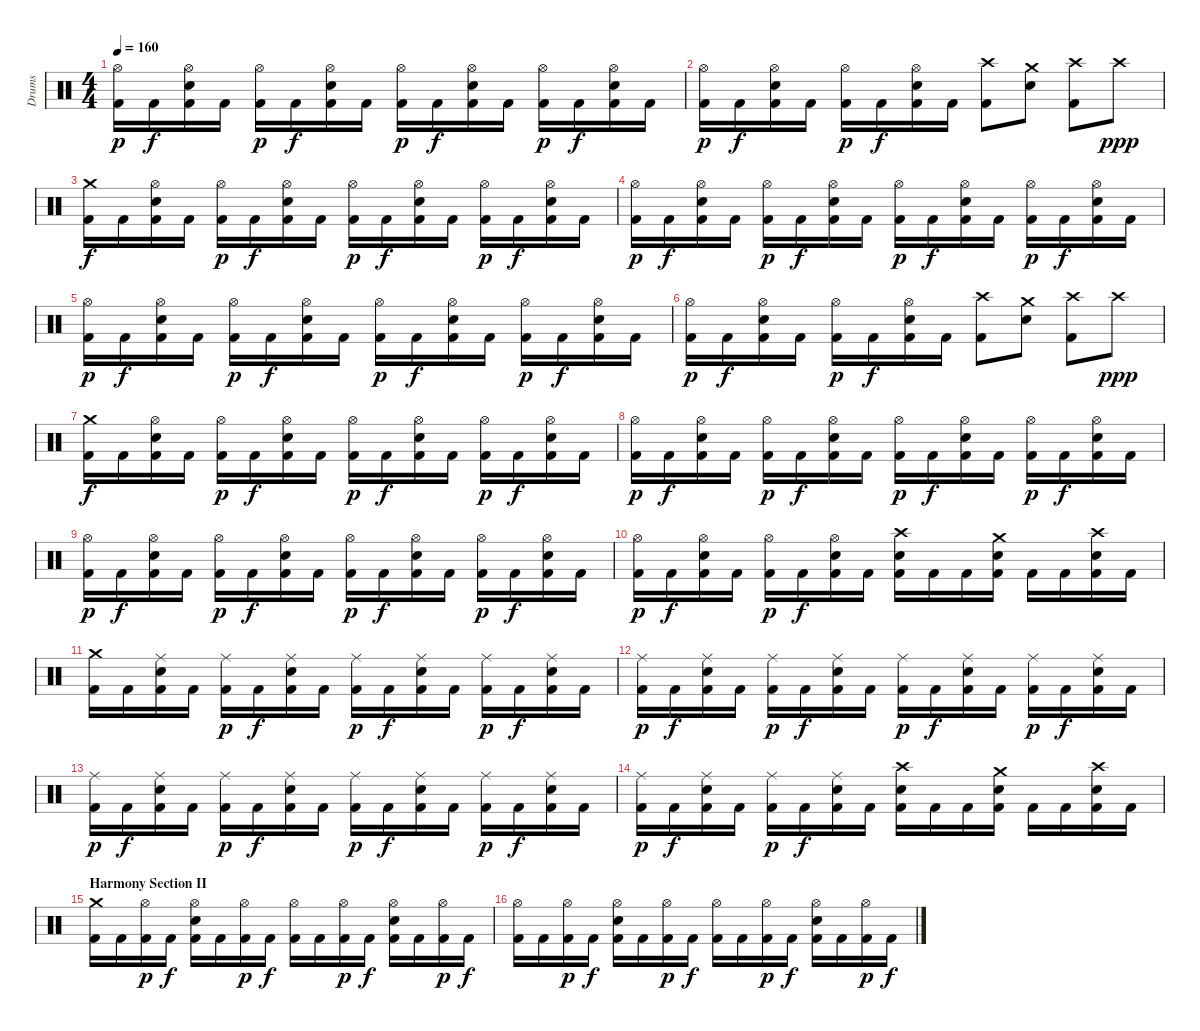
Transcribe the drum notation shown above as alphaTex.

\track ("Drums" "Drums") {instrument percussion}
\staff {score}
\articulation defaults
\ts (4 4)
\tempo 160
\clef neutral
\ks c
("Hi-Hat (open)" "Kick (hit) 2").16{dy p} "Kick (hit) 2".16{dy f} ("Hi-Hat (open)" "Snare (hit) 2" "Kick (hit) 2").16 "Kick (hit) 2".16 ("Hi-Hat (open)" "Kick (hit) 2").16{dy p} "Kick (hit) 2".16{dy f} ("Hi-Hat (open)" "Snare (hit) 2" "Kick (hit) 2").16 "Kick (hit) 2".16 ("Hi-Hat (open)" "Kick (hit) 2").16{dy p} "Kick (hit) 2".16{dy f} ("Hi-Hat (open)" "Snare (hit) 2" "Kick (hit) 2").16 "Kick (hit) 2".16 ("Hi-Hat (open)" "Kick (hit) 2").16{dy p} "Kick (hit) 2".16{dy f} ("Hi-Hat (open)" "Snare (hit) 2" "Kick (hit) 2").16 "Kick (hit) 2".16 |
("Hi-Hat (open)" "Kick (hit) 2").16{dy p} "Kick (hit) 2".16{dy f} ("Hi-Hat (open)" "Snare (hit) 2" "Kick (hit) 2").16 "Kick (hit) 2".16 ("Hi-Hat (open)" "Kick (hit) 2").16{dy p} "Kick (hit) 2".16{dy f} ("Hi-Hat (open)" "Snare (hit) 2" "Kick (hit) 2").16 "Kick (hit) 2".16 ("Crash high (hit)" "Kick (hit) 2").8 ("Crash medium (hit)" "Snare (hit) 2").8 ("Crash high (hit)" "Kick (hit) 2").8 "Crash high (hit)".8{dy ppp} |
("Crash medium (hit)" "Kick (hit) 2").16{dy f} "Kick (hit) 2".16 ("Hi-Hat (open)" "Snare (hit) 2" "Kick (hit) 2").16 "Kick (hit) 2".16 ("Hi-Hat (open)" "Kick (hit) 2").16{dy p} "Kick (hit) 2".16{dy f} ("Hi-Hat (open)" "Snare (hit) 2" "Kick (hit) 2").16 "Kick (hit) 2".16 ("Hi-Hat (open)" "Kick (hit) 2").16{dy p} "Kick (hit) 2".16{dy f} ("Hi-Hat (open)" "Snare (hit) 2" "Kick (hit) 2").16 "Kick (hit) 2".16 ("Hi-Hat (open)" "Kick (hit) 2").16{dy p} "Kick (hit) 2".16{dy f} ("Hi-Hat (open)" "Snare (hit) 2" "Kick (hit) 2").16 "Kick (hit) 2".16 |
("Hi-Hat (open)" "Kick (hit) 2").16{dy p} "Kick (hit) 2".16{dy f} ("Hi-Hat (open)" "Snare (hit) 2" "Kick (hit) 2").16 "Kick (hit) 2".16 ("Hi-Hat (open)" "Kick (hit) 2").16{dy p} "Kick (hit) 2".16{dy f} ("Hi-Hat (open)" "Snare (hit) 2" "Kick (hit) 2").16 "Kick (hit) 2".16 ("Hi-Hat (open)" "Kick (hit) 2").16{dy p} "Kick (hit) 2".16{dy f} ("Hi-Hat (open)" "Snare (hit) 2" "Kick (hit) 2").16 "Kick (hit) 2".16 ("Hi-Hat (open)" "Kick (hit) 2").16{dy p} "Kick (hit) 2".16{dy f} ("Hi-Hat (open)" "Snare (hit) 2" "Kick (hit) 2").16 "Kick (hit) 2".16 |
("Hi-Hat (open)" "Kick (hit) 2").16{dy p} "Kick (hit) 2".16{dy f} ("Hi-Hat (open)" "Snare (hit) 2" "Kick (hit) 2").16 "Kick (hit) 2".16 ("Hi-Hat (open)" "Kick (hit) 2").16{dy p} "Kick (hit) 2".16{dy f} ("Hi-Hat (open)" "Snare (hit) 2" "Kick (hit) 2").16 "Kick (hit) 2".16 ("Hi-Hat (open)" "Kick (hit) 2").16{dy p} "Kick (hit) 2".16{dy f} ("Hi-Hat (open)" "Snare (hit) 2" "Kick (hit) 2").16 "Kick (hit) 2".16 ("Hi-Hat (open)" "Kick (hit) 2").16{dy p} "Kick (hit) 2".16{dy f} ("Hi-Hat (open)" "Snare (hit) 2" "Kick (hit) 2").16 "Kick (hit) 2".16 |
("Hi-Hat (open)" "Kick (hit) 2").16{dy p} "Kick (hit) 2".16{dy f} ("Hi-Hat (open)" "Snare (hit) 2" "Kick (hit) 2").16 "Kick (hit) 2".16 ("Hi-Hat (open)" "Kick (hit) 2").16{dy p} "Kick (hit) 2".16{dy f} ("Hi-Hat (open)" "Snare (hit) 2" "Kick (hit) 2").16 "Kick (hit) 2".16 ("Crash high (hit)" "Kick (hit) 2").8 ("Crash medium (hit)" "Snare (hit) 2").8 ("Crash high (hit)" "Kick (hit) 2").8 "Crash high (hit)".8{dy ppp} |
\section ("" "")
("Crash medium (hit)" "Kick (hit) 2").16{dy f} "Kick (hit) 2".16 ("Hi-Hat (open)" "Snare (hit) 2" "Kick (hit) 2").16 "Kick (hit) 2".16 ("Hi-Hat (open)" "Kick (hit) 2").16{dy p} "Kick (hit) 2".16{dy f} ("Hi-Hat (open)" "Snare (hit) 2" "Kick (hit) 2").16 "Kick (hit) 2".16 ("Hi-Hat (open)" "Kick (hit) 2").16{dy p} "Kick (hit) 2".16{dy f} ("Hi-Hat (open)" "Snare (hit) 2" "Kick (hit) 2").16 "Kick (hit) 2".16 ("Hi-Hat (open)" "Kick (hit) 2").16{dy p} "Kick (hit) 2".16{dy f} ("Hi-Hat (open)" "Snare (hit) 2" "Kick (hit) 2").16 "Kick (hit) 2".16 |
("Hi-Hat (open)" "Kick (hit) 2").16{dy p} "Kick (hit) 2".16{dy f} ("Hi-Hat (open)" "Snare (hit) 2" "Kick (hit) 2").16 "Kick (hit) 2".16 ("Hi-Hat (open)" "Kick (hit) 2").16{dy p} "Kick (hit) 2".16{dy f} ("Hi-Hat (open)" "Snare (hit) 2" "Kick (hit) 2").16 "Kick (hit) 2".16 ("Hi-Hat (open)" "Kick (hit) 2").16{dy p} "Kick (hit) 2".16{dy f} ("Hi-Hat (open)" "Snare (hit) 2" "Kick (hit) 2").16 "Kick (hit) 2".16 ("Hi-Hat (open)" "Kick (hit) 2").16{dy p} "Kick (hit) 2".16{dy f} ("Hi-Hat (open)" "Snare (hit) 2" "Kick (hit) 2").16 "Kick (hit) 2".16 |
("Hi-Hat (open)" "Kick (hit) 2").16{dy p} "Kick (hit) 2".16{dy f} ("Hi-Hat (open)" "Snare (hit) 2" "Kick (hit) 2").16 "Kick (hit) 2".16 ("Hi-Hat (open)" "Kick (hit) 2").16{dy p} "Kick (hit) 2".16{dy f} ("Hi-Hat (open)" "Snare (hit) 2" "Kick (hit) 2").16 "Kick (hit) 2".16 ("Hi-Hat (open)" "Kick (hit) 2").16{dy p} "Kick (hit) 2".16{dy f} ("Hi-Hat (open)" "Snare (hit) 2" "Kick (hit) 2").16 "Kick (hit) 2".16 ("Hi-Hat (open)" "Kick (hit) 2").16{dy p} "Kick (hit) 2".16{dy f} ("Hi-Hat (open)" "Snare (hit) 2" "Kick (hit) 2").16 "Kick (hit) 2".16 |
("Hi-Hat (open)" "Kick (hit) 2").16{dy p} "Kick (hit) 2".16{dy f} ("Hi-Hat (open)" "Snare (hit) 2" "Kick (hit) 2").16 "Kick (hit) 2".16 ("Hi-Hat (open)" "Kick (hit) 2").16{dy p} "Kick (hit) 2".16{dy f} ("Hi-Hat (open)" "Snare (hit) 2" "Kick (hit) 2").16 "Kick (hit) 2".16 ("Crash high (hit)" "Snare (hit) 2" "Kick (hit) 2").16 "Kick (hit) 2".16 "Kick (hit) 2".16 ("Crash medium (hit)" "Snare (hit) 2" "Kick (hit) 2").16 "Kick (hit) 2".16 "Kick (hit) 2".16 ("Crash high (hit)" "Snare (hit) 2" "Kick (hit) 2").16 "Kick (hit) 2".16 |
("Crash medium (hit)" "Kick (hit) 2").16 "Kick (hit) 2".16 ("Ride (middle)" "Snare (hit) 2" "Kick (hit) 2").16 "Kick (hit) 2".16 ("Ride (middle)" "Kick (hit) 2").16{dy p} "Kick (hit) 2".16{dy f} ("Ride (middle)" "Snare (hit) 2" "Kick (hit) 2").16 "Kick (hit) 2".16 ("Ride (middle)" "Kick (hit) 2").16{dy p} "Kick (hit) 2".16{dy f} ("Ride (middle)" "Snare (hit) 2" "Kick (hit) 2").16 "Kick (hit) 2".16 ("Ride (middle)" "Kick (hit) 2").16{dy p} "Kick (hit) 2".16{dy f} ("Ride (middle)" "Snare (hit) 2" "Kick (hit) 2").16 "Kick (hit) 2".16 |
("Ride (middle)" "Kick (hit) 2").16{dy p} "Kick (hit) 2".16{dy f} ("Ride (middle)" "Snare (hit) 2" "Kick (hit) 2").16 "Kick (hit) 2".16 ("Ride (middle)" "Kick (hit) 2").16{dy p} "Kick (hit) 2".16{dy f} ("Ride (middle)" "Snare (hit) 2" "Kick (hit) 2").16 "Kick (hit) 2".16 ("Ride (middle)" "Kick (hit) 2").16{dy p} "Kick (hit) 2".16{dy f} ("Ride (middle)" "Snare (hit) 2" "Kick (hit) 2").16 "Kick (hit) 2".16 ("Ride (middle)" "Kick (hit) 2").16{dy p} "Kick (hit) 2".16{dy f} ("Ride (middle)" "Snare (hit) 2" "Kick (hit) 2").16 "Kick (hit) 2".16 |
("Ride (middle)" "Kick (hit) 2").16{dy p} "Kick (hit) 2".16{dy f} ("Ride (middle)" "Snare (hit) 2" "Kick (hit) 2").16 "Kick (hit) 2".16 ("Ride (middle)" "Kick (hit) 2").16{dy p} "Kick (hit) 2".16{dy f} ("Ride (middle)" "Snare (hit) 2" "Kick (hit) 2").16 "Kick (hit) 2".16 ("Ride (middle)" "Kick (hit) 2").16{dy p} "Kick (hit) 2".16{dy f} ("Ride (middle)" "Snare (hit) 2" "Kick (hit) 2").16 "Kick (hit) 2".16 ("Ride (middle)" "Kick (hit) 2").16{dy p} "Kick (hit) 2".16{dy f} ("Ride (middle)" "Snare (hit) 2" "Kick (hit) 2").16 "Kick (hit) 2".16 |
("Ride (middle)" "Kick (hit) 2").16{dy p} "Kick (hit) 2".16{dy f} ("Ride (middle)" "Snare (hit) 2" "Kick (hit) 2").16 "Kick (hit) 2".16 ("Ride (middle)" "Kick (hit) 2").16{dy p} "Kick (hit) 2".16{dy f} ("Ride (middle)" "Snare (hit) 2" "Kick (hit) 2").16 "Kick (hit) 2".16 ("Crash high (hit)" "Snare (hit) 2" "Kick (hit) 2").16 "Kick (hit) 2".16 "Kick (hit) 2".16 ("Crash medium (hit)" "Snare (hit) 2" "Kick (hit) 2").16 "Kick (hit) 2".16 "Kick (hit) 2".16 ("Crash high (hit)" "Snare (hit) 2" "Kick (hit) 2").16 "Kick (hit) 2".16 |
\section ("" "Harmony Section II")
("Crash medium (hit)" "Kick (hit) 2").16 "Kick (hit) 2".16 ("Hi-Hat (open)" "Kick (hit) 2").16{dy p} "Kick (hit) 2".16{dy f} ("Hi-Hat (open)" "Snare (hit) 2" "Kick (hit) 2").16 "Kick (hit) 2".16 ("Hi-Hat (open)" "Kick (hit) 2").16{dy p} "Kick (hit) 2".16{dy f} ("Hi-Hat (open)" "Kick (hit) 2").16 "Kick (hit) 2".16 ("Hi-Hat (open)" "Kick (hit) 2").16{dy p} "Kick (hit) 2".16{dy f} ("Hi-Hat (open)" "Snare (hit) 2" "Kick (hit) 2").16 "Kick (hit) 2".16 ("Hi-Hat (open)" "Kick (hit) 2").16{dy p} "Kick (hit) 2".16{dy f} |
("Hi-Hat (open)" "Kick (hit) 2").16 "Kick (hit) 2".16 ("Hi-Hat (open)" "Kick (hit) 2").16{dy p} "Kick (hit) 2".16{dy f} ("Hi-Hat (open)" "Snare (hit) 2" "Kick (hit) 2").16 "Kick (hit) 2".16 ("Hi-Hat (open)" "Kick (hit) 2").16{dy p} "Kick (hit) 2".16{dy f} ("Hi-Hat (open)" "Kick (hit) 2").16 "Kick (hit) 2".16 ("Hi-Hat (open)" "Kick (hit) 2").16{dy p} "Kick (hit) 2".16{dy f} ("Hi-Hat (open)" "Snare (hit) 2" "Kick (hit) 2").16 "Kick (hit) 2".16 ("Hi-Hat (open)" "Kick (hit) 2").16{dy p} "Kick (hit) 2".16{dy f}
